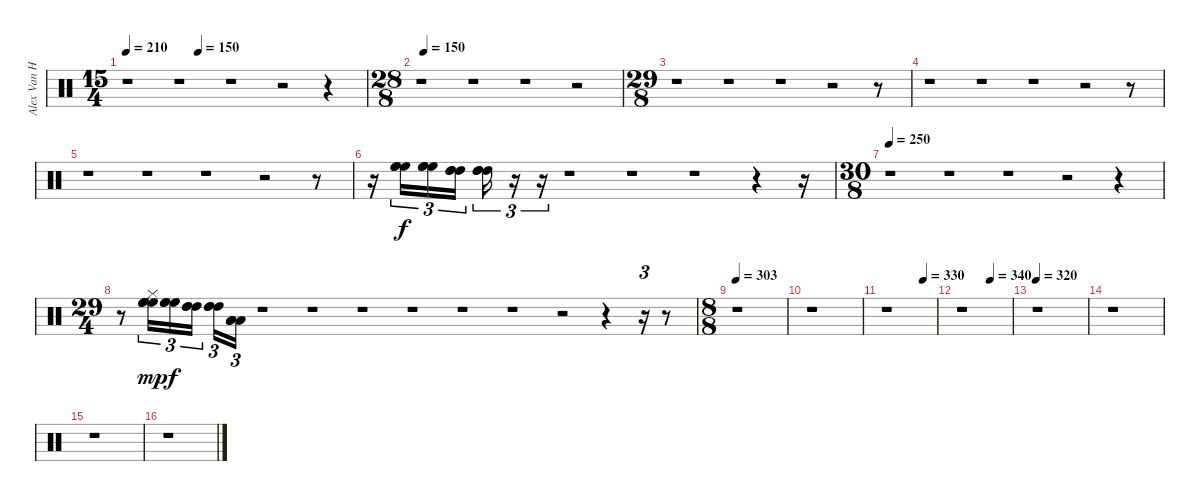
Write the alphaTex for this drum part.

\track ("Alex Van Halen" "Alex Van H") {instrument percussion}
\staff {score}
\articulation defaults
\ts (15 4)
\tempo 210
\tempo (150 0.3)
\clef neutral
\ks c
r.1{dy f} r.1 r.1 r.2 r.4 |
\ts (28 8)
\tempo (150 0.017857142857142856)
r.1 r.1 r.1 r.2 |
\ts (29 8)
r.1 r.1 r.1 r.2 r.8 |
r.1 r.1 r.1 r.2 r.8 |
r.1 r.1 r.1 r.2 r.8 |
r.16 ("High Floor Tom (hit)" "High Floor Tom (hit)" "High Floor Tom (hit)").16{tu (3 2)} ("High Floor Tom (hit)" "High Floor Tom (hit)" "High Floor Tom (hit)").16{tu (3 2)} ("High Tom (hit)" "High Tom (hit)" "High Tom (hit)").16{tu (3 2)} ("High Tom (hit)" "High Tom (hit)" "High Tom (hit)").16{tu (3 2)} r.16{tu (3 2)} r.16{tu (3 2)} r.1 r.1 r.1 r.4 r.16 |
\ts (30 8)
\tempo 250
r.1 r.1 r.1 r.2 r.4 |
\ts (29 4)
r.8 ("High Floor Tom (hit)" "High Floor Tom (hit)" "Hi-Hat (closed)" "High Floor Tom (hit)").16{tu (3 2) dy mp} ("High Floor Tom (hit)" "High Floor Tom (hit)" "High Floor Tom (hit)").16{tu (3 2) dy f} ("High Tom (hit)" "High Tom (hit)" "High Tom (hit)").16{tu (3 2)} ("High Tom (hit)" "High Tom (hit)" "High Tom (hit)").16{tu (3 2)} ("Low Tom (hit)" "Low Tom (hit)" "Low Tom (hit)").16{tu (3 2)} r.1 r.1 r.1 r.1 r.1 r.1 r.2 r.4 r.16{tu (3 2)} r.8 |
\ts (8 8)
\tempo 303
r.1 |
r.1 |
\tempo (330 0.75)
r.1 |
\tempo (340 0.5833333333333334)
r.1 |
\tempo 320
r.1 |
r.1 |
r.1 |
r.1
